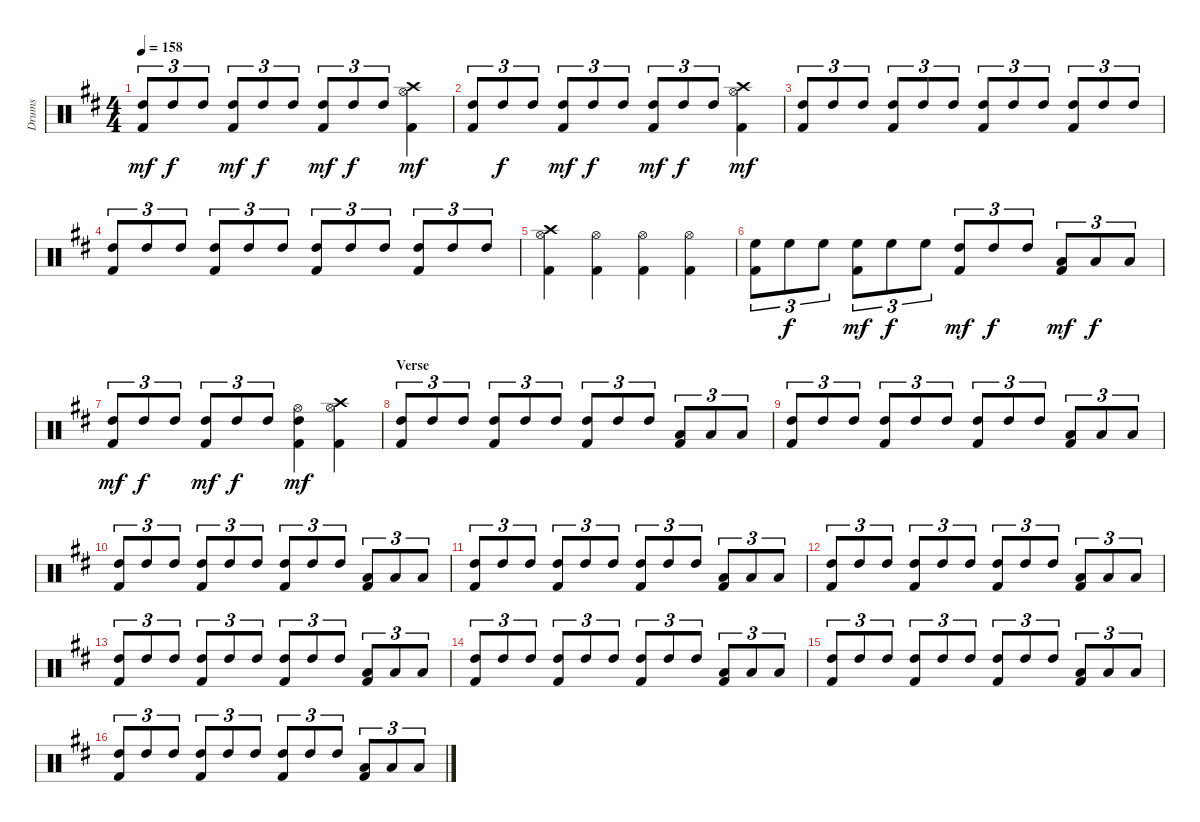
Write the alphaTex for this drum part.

\track ("Drums" "Drums") {instrument percussion}
\staff {score}
\articulation defaults
\ts (4 4)
\tempo 158
\clef neutral
\ks d
("Kick (hit) 2" "High Tom (hit)").8{tu (3 2) dy mf} "High Tom (hit)".8{tu (3 2) dy f} "High Tom (hit)".8{tu (3 2)} ("Kick (hit) 2" "High Tom (hit)").8{tu (3 2) dy mf} "High Tom (hit)".8{tu (3 2) dy f} "High Tom (hit)".8{tu (3 2)} ("Kick (hit) 2" "High Tom (hit)").8{tu (3 2) dy mf} "High Tom (hit)".8{tu (3 2) dy f} "High Tom (hit)".8{tu (3 2)} ("Kick (hit) 2" "Hi-Hat (open)" "Crash high (hit)").4{dy mf} |
("Kick (hit) 2" "High Tom (hit)").8{tu (3 2)} "High Tom (hit)".8{tu (3 2) dy f} "High Tom (hit)".8{tu (3 2)} ("Kick (hit) 2" "High Tom (hit)").8{tu (3 2) dy mf} "High Tom (hit)".8{tu (3 2) dy f} "High Tom (hit)".8{tu (3 2)} ("Kick (hit) 2" "High Tom (hit)").8{tu (3 2) dy mf} "High Tom (hit)".8{tu (3 2) dy f} "High Tom (hit)".8{tu (3 2)} ("Kick (hit) 2" "Hi-Hat (open)" "Crash high (hit)").4{dy mf} |
("Kick (hit) 2" "High Tom (hit)").8{tu (3 2)} "High Tom (hit)".8{tu (3 2)} "High Tom (hit)".8{tu (3 2)} ("Kick (hit) 2" "High Tom (hit)").8{tu (3 2)} "High Tom (hit)".8{tu (3 2)} "High Tom (hit)".8{tu (3 2)} ("Kick (hit) 2" "High Tom (hit)").8{tu (3 2)} "High Tom (hit)".8{tu (3 2)} "High Tom (hit)".8{tu (3 2)} ("Kick (hit) 2" "High Tom (hit)").8{tu (3 2)} "High Tom (hit)".8{tu (3 2)} "High Tom (hit)".8{tu (3 2)} |
("Kick (hit) 2" "High Tom (hit)").8{tu (3 2)} "High Tom (hit)".8{tu (3 2)} "High Tom (hit)".8{tu (3 2)} ("Kick (hit) 2" "High Tom (hit)").8{tu (3 2)} "High Tom (hit)".8{tu (3 2)} "High Tom (hit)".8{tu (3 2)} ("Kick (hit) 2" "High Tom (hit)").8{tu (3 2)} "High Tom (hit)".8{tu (3 2)} "High Tom (hit)".8{tu (3 2)} ("Kick (hit) 2" "High Tom (hit)").8{tu (3 2)} "High Tom (hit)".8{tu (3 2)} "High Tom (hit)".8{tu (3 2)} |
("Kick (hit) 2" "Hi-Hat (open)" "Crash high (hit)").4 ("Kick (hit) 2" "Hi-Hat (open)").4 ("Kick (hit) 2" "Hi-Hat (open)").4 ("Kick (hit) 2" "Hi-Hat (open)").4 |
("Kick (hit) 2" "High Floor Tom (hit)").8{tu (3 2)} "High Floor Tom (hit)".8{tu (3 2) dy f} "High Floor Tom (hit)".8{tu (3 2)} ("Kick (hit) 2" "High Floor Tom (hit)").8{tu (3 2) dy mf} "High Floor Tom (hit)".8{tu (3 2) dy f} "High Floor Tom (hit)".8{tu (3 2)} ("Kick (hit) 2" "High Tom (hit)").8{tu (3 2) dy mf} "High Tom (hit)".8{tu (3 2) dy f} "High Tom (hit)".8{tu (3 2)} ("Kick (hit) 2" "Low Tom (hit)").8{tu (3 2) dy mf} "Low Tom (hit)".8{tu (3 2) dy f} "Low Tom (hit)".8{tu (3 2)} |
("Kick (hit) 2" "High Tom (hit)").8{tu (3 2) dy mf} "High Tom (hit)".8{tu (3 2) dy f} "High Tom (hit)".8{tu (3 2)} ("Kick (hit) 2" "High Tom (hit)").8{tu (3 2) dy mf} "High Tom (hit)".8{tu (3 2) dy f} "High Tom (hit)".8{tu (3 2)} ("Kick (hit) 2" "Hi-Hat (open)" "High Tom (hit)").4{dy mf} ("Kick (hit) 2" "Hi-Hat (open)" "Crash high (hit)").4 |
\section ("" "Verse")
("Kick (hit) 2" "High Tom (hit)").8{tu (3 2)} "High Tom (hit)".8{tu (3 2)} "High Tom (hit)".8{tu (3 2)} ("Kick (hit) 2" "High Tom (hit)").8{tu (3 2)} "High Tom (hit)".8{tu (3 2)} "High Tom (hit)".8{tu (3 2)} ("Kick (hit) 2" "High Tom (hit)").8{tu (3 2)} "High Tom (hit)".8{tu (3 2)} "High Tom (hit)".8{tu (3 2)} ("Kick (hit) 2" "Low Tom (hit)").8{tu (3 2)} "Low Tom (hit)".8{tu (3 2)} "Low Tom (hit)".8{tu (3 2)} |
("Kick (hit) 2" "High Tom (hit)").8{tu (3 2)} "High Tom (hit)".8{tu (3 2)} "High Tom (hit)".8{tu (3 2)} ("Kick (hit) 2" "High Tom (hit)").8{tu (3 2)} "High Tom (hit)".8{tu (3 2)} "High Tom (hit)".8{tu (3 2)} ("Kick (hit) 2" "High Tom (hit)").8{tu (3 2)} "High Tom (hit)".8{tu (3 2)} "High Tom (hit)".8{tu (3 2)} ("Kick (hit) 2" "Low Tom (hit)").8{tu (3 2)} "Low Tom (hit)".8{tu (3 2)} "Low Tom (hit)".8{tu (3 2)} |
("Kick (hit) 2" "High Tom (hit)").8{tu (3 2)} "High Tom (hit)".8{tu (3 2)} "High Tom (hit)".8{tu (3 2)} ("Kick (hit) 2" "High Tom (hit)").8{tu (3 2)} "High Tom (hit)".8{tu (3 2)} "High Tom (hit)".8{tu (3 2)} ("Kick (hit) 2" "High Tom (hit)").8{tu (3 2)} "High Tom (hit)".8{tu (3 2)} "High Tom (hit)".8{tu (3 2)} ("Kick (hit) 2" "Low Tom (hit)").8{tu (3 2)} "Low Tom (hit)".8{tu (3 2)} "Low Tom (hit)".8{tu (3 2)} |
("Kick (hit) 2" "High Tom (hit)").8{tu (3 2)} "High Tom (hit)".8{tu (3 2)} "High Tom (hit)".8{tu (3 2)} ("Kick (hit) 2" "High Tom (hit)").8{tu (3 2)} "High Tom (hit)".8{tu (3 2)} "High Tom (hit)".8{tu (3 2)} ("Kick (hit) 2" "High Tom (hit)").8{tu (3 2)} "High Tom (hit)".8{tu (3 2)} "High Tom (hit)".8{tu (3 2)} ("Kick (hit) 2" "Low Tom (hit)").8{tu (3 2)} "Low Tom (hit)".8{tu (3 2)} "Low Tom (hit)".8{tu (3 2)} |
("Kick (hit) 2" "High Tom (hit)").8{tu (3 2)} "High Tom (hit)".8{tu (3 2)} "High Tom (hit)".8{tu (3 2)} ("Kick (hit) 2" "High Tom (hit)").8{tu (3 2)} "High Tom (hit)".8{tu (3 2)} "High Tom (hit)".8{tu (3 2)} ("Kick (hit) 2" "High Tom (hit)").8{tu (3 2)} "High Tom (hit)".8{tu (3 2)} "High Tom (hit)".8{tu (3 2)} ("Kick (hit) 2" "Low Tom (hit)").8{tu (3 2)} "Low Tom (hit)".8{tu (3 2)} "Low Tom (hit)".8{tu (3 2)} |
("Kick (hit) 2" "High Tom (hit)").8{tu (3 2)} "High Tom (hit)".8{tu (3 2)} "High Tom (hit)".8{tu (3 2)} ("Kick (hit) 2" "High Tom (hit)").8{tu (3 2)} "High Tom (hit)".8{tu (3 2)} "High Tom (hit)".8{tu (3 2)} ("Kick (hit) 2" "High Tom (hit)").8{tu (3 2)} "High Tom (hit)".8{tu (3 2)} "High Tom (hit)".8{tu (3 2)} ("Kick (hit) 2" "Low Tom (hit)").8{tu (3 2)} "Low Tom (hit)".8{tu (3 2)} "Low Tom (hit)".8{tu (3 2)} |
("Kick (hit) 2" "High Tom (hit)").8{tu (3 2)} "High Tom (hit)".8{tu (3 2)} "High Tom (hit)".8{tu (3 2)} ("Kick (hit) 2" "High Tom (hit)").8{tu (3 2)} "High Tom (hit)".8{tu (3 2)} "High Tom (hit)".8{tu (3 2)} ("Kick (hit) 2" "High Tom (hit)").8{tu (3 2)} "High Tom (hit)".8{tu (3 2)} "High Tom (hit)".8{tu (3 2)} ("Kick (hit) 2" "Low Tom (hit)").8{tu (3 2)} "Low Tom (hit)".8{tu (3 2)} "Low Tom (hit)".8{tu (3 2)} |
("Kick (hit) 2" "High Tom (hit)").8{tu (3 2)} "High Tom (hit)".8{tu (3 2)} "High Tom (hit)".8{tu (3 2)} ("Kick (hit) 2" "High Tom (hit)").8{tu (3 2)} "High Tom (hit)".8{tu (3 2)} "High Tom (hit)".8{tu (3 2)} ("Kick (hit) 2" "High Tom (hit)").8{tu (3 2)} "High Tom (hit)".8{tu (3 2)} "High Tom (hit)".8{tu (3 2)} ("Kick (hit) 2" "Low Tom (hit)").8{tu (3 2)} "Low Tom (hit)".8{tu (3 2)} "Low Tom (hit)".8{tu (3 2)} |
("Kick (hit) 2" "High Tom (hit)").8{tu (3 2)} "High Tom (hit)".8{tu (3 2)} "High Tom (hit)".8{tu (3 2)} ("Kick (hit) 2" "High Tom (hit)").8{tu (3 2)} "High Tom (hit)".8{tu (3 2)} "High Tom (hit)".8{tu (3 2)} ("Kick (hit) 2" "High Tom (hit)").8{tu (3 2)} "High Tom (hit)".8{tu (3 2)} "High Tom (hit)".8{tu (3 2)} ("Kick (hit) 2" "Low Tom (hit)").8{tu (3 2)} "Low Tom (hit)".8{tu (3 2)} "Low Tom (hit)".8{tu (3 2)}
